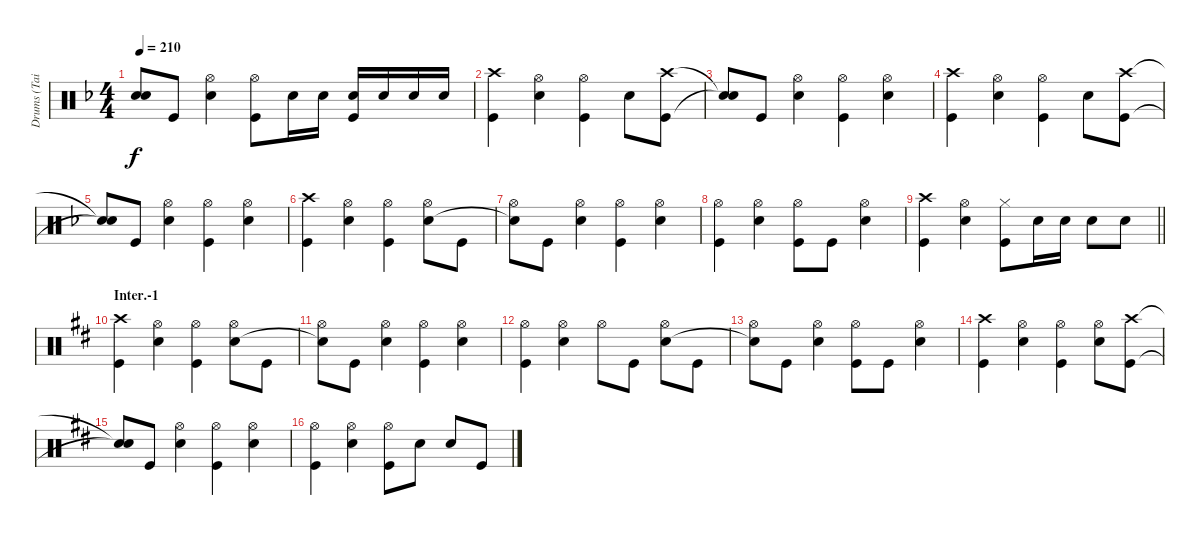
\track ("Drums (Tainaka Ritsu)" "Drums (Tai") {instrument percussion}
\staff {score}
\articulation defaults
\ts (4 4)
\tempo 210
\clef neutral
\ks f
("Snare (hit)"{t} "Snare (hit)"{t}).8{dy f} "Kick (hit)".8 ("Hi-Hat (open)" "Snare (hit) 2").4 ("Hi-Hat (open)" "Kick (hit)").8 "Snare (hit) 2".16 "Snare (hit) 2".16 ("Snare (hit) 2" "Kick (hit)").16 "Snare (hit) 2".16 "Snare (hit) 2".16 "Snare (hit) 2".16 |
("Crash high (hit)" "Kick (hit)").4 ("Hi-Hat (open)" "Snare (hit) 2").4 ("Hi-Hat (open)" "Kick (hit)").4 "Snare (hit) 2".8 ("Crash high (hit)" "Kick (hit)").8 |
("Snare (hit)"{t} "Snare (hit)"{t}).8 "Kick (hit)".8 ("Hi-Hat (open)" "Snare (hit) 2").4 ("Hi-Hat (open)" "Kick (hit)").4 ("Hi-Hat (open)" "Snare (hit) 2").4 |
("Crash high (hit)" "Kick (hit)").4 ("Hi-Hat (open)" "Snare (hit) 2").4 ("Hi-Hat (open)" "Kick (hit)").4 "Snare (hit) 2".8 ("Crash high (hit)" "Kick (hit)").8 |
("Snare (hit)"{t} "Snare (hit)"{t}).8 "Kick (hit)".8 ("Hi-Hat (open)" "Snare (hit) 2").4 ("Hi-Hat (open)" "Kick (hit)").4 ("Hi-Hat (open)" "Snare (hit) 2").4 |
("Crash high (hit)" "Kick (hit)").4 ("Hi-Hat (open)" "Snare (hit) 2").4 ("Hi-Hat (open)" "Kick (hit)").4 ("Hi-Hat (open)" "Snare (hit) 2").8 "Kick (hit)".8 |
("Hi-Hat (open)" "Snare (hit)"{t}).8 "Kick (hit)".8 ("Hi-Hat (open)" "Snare (hit) 2").4 ("Hi-Hat (open)" "Kick (hit)").4 ("Hi-Hat (open)" "Snare (hit) 2").4 |
("Hi-Hat (open)" "Kick (hit)").4 ("Hi-Hat (open)" "Snare (hit) 2").4 ("Hi-Hat (open)" "Kick (hit)").8 "Kick (hit)".8 ("Hi-Hat (open)" "Snare (hit) 2").4 |
\barLineRight lightlight
("Crash high (hit)" "Kick (hit)").4 ("Hi-Hat (open)" "Snare (hit) 2").4 ("Hi-Hat (closed)" "Kick (hit)").8 "Snare (hit) 2".16 "Snare (hit) 2".16 "Snare (hit) 2".8 "Snare (hit) 2".8 |
\section ("" "Inter.-1")
\ks d
("Crash high (hit)" "Kick (hit)").4 ("Hi-Hat (open)" "Snare (hit) 2").4 ("Hi-Hat (open)" "Kick (hit)").4 ("Hi-Hat (open)" "Snare (hit) 2").8 "Kick (hit)".8 |
("Hi-Hat (open)" "Snare (hit)"{t}).8 "Kick (hit)".8 ("Hi-Hat (open)" "Snare (hit) 2").4 ("Hi-Hat (open)" "Kick (hit)").4 ("Hi-Hat (open)" "Snare (hit) 2").4 |
("Hi-Hat (open)" "Kick (hit)").4 ("Hi-Hat (open)" "Snare (hit) 2").4 "Hi-Hat (open)".8 "Kick (hit)".8 ("Hi-Hat (open)" "Snare (hit) 2").8 "Kick (hit)".8 |
("Hi-Hat (open)" "Snare (hit)"{t}).8 "Kick (hit)".8 ("Hi-Hat (open)" "Snare (hit) 2").4 ("Hi-Hat (open)" "Kick (hit)").8 "Kick (hit)".8 ("Hi-Hat (open)" "Snare (hit) 2").4 |
("Crash high (hit)" "Kick (hit)").4 ("Hi-Hat (open)" "Snare (hit) 2").4 ("Hi-Hat (open)" "Kick (hit)").4 ("Hi-Hat (open)" "Snare (hit) 2").8 ("Crash high (hit)" "Kick (hit)").8 |
("Snare (hit)"{t} "Snare (hit)"{t}).8 "Kick (hit)".8 ("Hi-Hat (open)" "Snare (hit) 2").4 ("Hi-Hat (open)" "Kick (hit)").4 ("Hi-Hat (open)" "Snare (hit) 2").4 |
("Hi-Hat (open)" "Kick (hit)").4 ("Hi-Hat (open)" "Snare (hit) 2").4 ("Hi-Hat (open)" "Kick (hit)").8 "Snare (hit) 2".8 "Snare (hit) 2".8 "Kick (hit)".8
